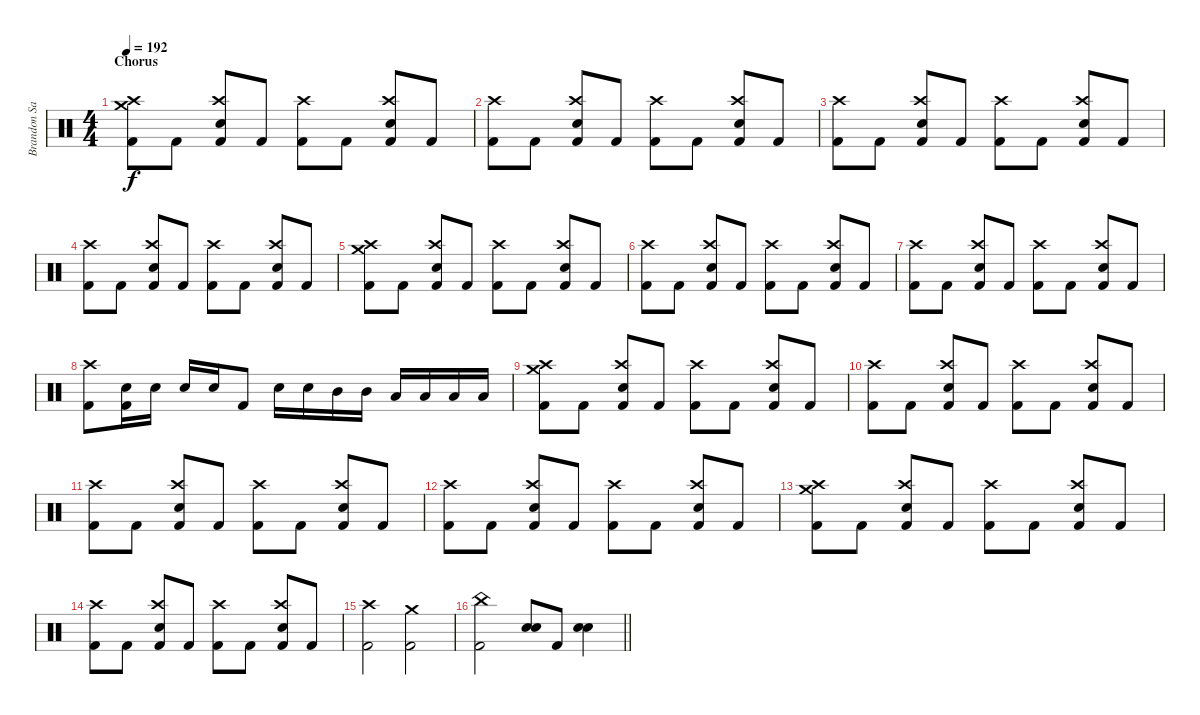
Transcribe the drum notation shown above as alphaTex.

\track ("Brandon Saller" "Brandon Sa") {instrument percussion}
\staff {score}
\articulation defaults
\ts (4 4)
\section ("" "Chorus")
\tempo 192
\clef neutral
\ks aminor
("Kick (hit) 2" "Crash medium (hit)" "Crash high (hit)").8{dy f} "Kick (hit) 2".8 ("Kick (hit) 2" "Snare (hit) 2" "Crash high (hit)").8 "Kick (hit) 2".8 ("Kick (hit) 2" "Crash high (hit)").8 "Kick (hit) 2".8 ("Kick (hit) 2" "Snare (hit) 2" "Crash high (hit)").8 "Kick (hit) 2".8 |
("Kick (hit) 2" "Crash high (hit)").8 "Kick (hit) 2".8 ("Kick (hit) 2" "Snare (hit) 2" "Crash high (hit)").8 "Kick (hit) 2".8 ("Kick (hit) 2" "Crash high (hit)").8 "Kick (hit) 2".8 ("Kick (hit) 2" "Snare (hit) 2" "Crash high (hit)").8 "Kick (hit) 2".8 |
("Kick (hit) 2" "Crash high (hit)").8 "Kick (hit) 2".8 ("Kick (hit) 2" "Snare (hit) 2" "Crash high (hit)").8 "Kick (hit) 2".8 ("Kick (hit) 2" "Crash high (hit)").8 "Kick (hit) 2".8 ("Kick (hit) 2" "Snare (hit) 2" "Crash high (hit)").8 "Kick (hit) 2".8 |
("Kick (hit) 2" "Crash high (hit)").8 "Kick (hit) 2".8 ("Kick (hit) 2" "Snare (hit) 2" "Crash high (hit)").8 "Kick (hit) 2".8 ("Kick (hit) 2" "Crash high (hit)").8 "Kick (hit) 2".8 ("Kick (hit) 2" "Snare (hit) 2" "Crash high (hit)").8 "Kick (hit) 2".8 |
("Kick (hit) 2" "Crash medium (hit)" "Crash high (hit)").8 "Kick (hit) 2".8 ("Kick (hit) 2" "Snare (hit) 2" "Crash high (hit)").8 "Kick (hit) 2".8 ("Kick (hit) 2" "Crash high (hit)").8 "Kick (hit) 2".8 ("Kick (hit) 2" "Snare (hit) 2" "Crash high (hit)").8 "Kick (hit) 2".8 |
("Kick (hit) 2" "Crash high (hit)").8 "Kick (hit) 2".8 ("Kick (hit) 2" "Snare (hit) 2" "Crash high (hit)").8 "Kick (hit) 2".8 ("Kick (hit) 2" "Crash high (hit)").8 "Kick (hit) 2".8 ("Kick (hit) 2" "Snare (hit) 2" "Crash high (hit)").8 "Kick (hit) 2".8 |
("Kick (hit) 2" "Crash high (hit)").8 "Kick (hit) 2".8 ("Kick (hit) 2" "Snare (hit) 2" "Crash high (hit)").8 "Kick (hit) 2".8 ("Kick (hit) 2" "Crash high (hit)").8 "Kick (hit) 2".8 ("Kick (hit) 2" "Snare (hit) 2" "Crash high (hit)").8 "Kick (hit) 2".8 |
("Kick (hit) 2" "Crash high (hit)").8 ("Kick (hit) 2" "Snare (hit) 2").16 "Snare (hit) 2".16 "Snare (hit) 2".16 "Snare (hit) 2".16 "Kick (hit) 2".8 "Snare (hit) 2".16 "Snare (hit) 2".16 "Mid Tom (hit)".16 "Mid Tom (hit)".16 "Low Tom (hit)".16 "Low Tom (hit)".16 "Low Floor Tom (hit)".16 "Low Floor Tom (hit)".16 |
("Kick (hit) 2" "Crash medium (hit)" "Crash high (hit)").8 "Kick (hit) 2".8 ("Kick (hit) 2" "Snare (hit) 2" "Crash high (hit)").8 "Kick (hit) 2".8 ("Kick (hit) 2" "Crash high (hit)").8 "Kick (hit) 2".8 ("Kick (hit) 2" "Snare (hit) 2" "Crash high (hit)").8 "Kick (hit) 2".8 |
("Kick (hit) 2" "Crash high (hit)").8 "Kick (hit) 2".8 ("Kick (hit) 2" "Snare (hit) 2" "Crash high (hit)").8 "Kick (hit) 2".8 ("Kick (hit) 2" "Crash high (hit)").8 "Kick (hit) 2".8 ("Kick (hit) 2" "Snare (hit) 2" "Crash high (hit)").8 "Kick (hit) 2".8 |
("Kick (hit) 2" "Crash high (hit)").8 "Kick (hit) 2".8 ("Kick (hit) 2" "Snare (hit) 2" "Crash high (hit)").8 "Kick (hit) 2".8 ("Kick (hit) 2" "Crash high (hit)").8 "Kick (hit) 2".8 ("Kick (hit) 2" "Snare (hit) 2" "Crash high (hit)").8 "Kick (hit) 2".8 |
("Kick (hit) 2" "Crash high (hit)").8 "Kick (hit) 2".8 ("Kick (hit) 2" "Snare (hit) 2" "Crash high (hit)").8 "Kick (hit) 2".8 ("Kick (hit) 2" "Crash high (hit)").8 "Kick (hit) 2".8 ("Kick (hit) 2" "Snare (hit) 2" "Crash high (hit)").8 "Kick (hit) 2".8 |
("Kick (hit) 2" "Crash medium (hit)" "Crash high (hit)").8 "Kick (hit) 2".8 ("Kick (hit) 2" "Snare (hit) 2" "Crash high (hit)").8 "Kick (hit) 2".8 ("Kick (hit) 2" "Crash high (hit)").8 "Kick (hit) 2".8 ("Kick (hit) 2" "Snare (hit) 2" "Crash high (hit)").8 "Kick (hit) 2".8 |
("Kick (hit) 2" "Crash high (hit)").8 "Kick (hit) 2".8 ("Kick (hit) 2" "Snare (hit) 2" "Crash high (hit)").8 "Kick (hit) 2".8 ("Kick (hit) 2" "Crash high (hit)").8 "Kick (hit) 2".8 ("Kick (hit) 2" "Snare (hit) 2" "Crash high (hit)").8 "Kick (hit) 2".8 |
("Kick (hit) 2" "Crash high (hit)").2 ("Kick (hit) 2" "Crash medium (hit)").2 |
\barLineRight lightlight
("Kick (hit) 2" "China (hit)").2 ("Snare (hit) 2" "Snare (hit) 2").8 "Kick (hit) 2".8 ("Snare (hit) 2" "Snare (hit) 2").4
